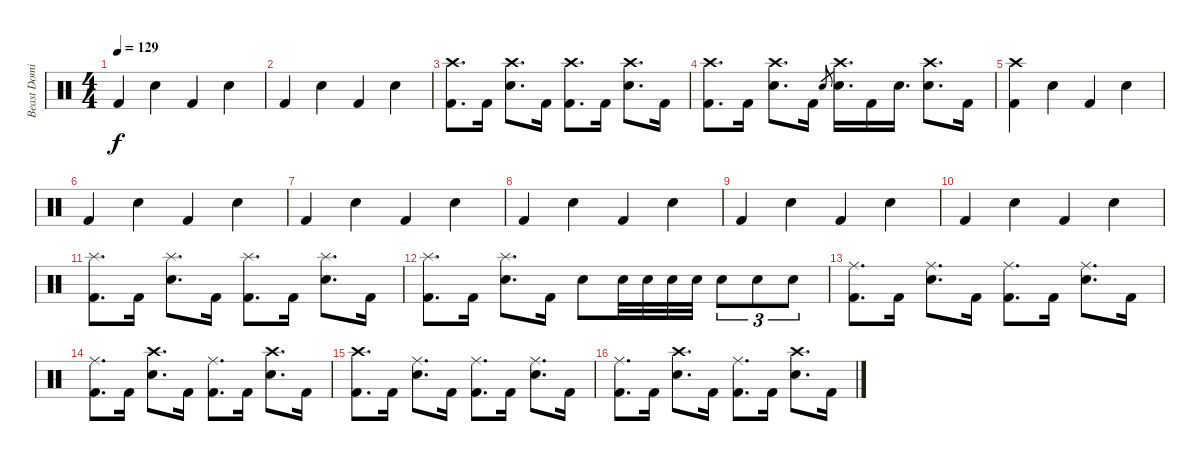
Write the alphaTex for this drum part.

\track ("Beast Dominator" "Beast Domi") {instrument percussion}
\staff
\articulation defaults
\ts (4 4)
\tempo 129
\clef neutral
\ks c "Kick (hit) 2".4{dy f} "Snare (hit) 2".4 "Kick (hit) 2".4 "Snare (hit) 2".4
|
"Kick (hit) 2".4 "Snare (hit) 2".4 "Kick (hit) 2".4 "Electric Snare (hit)".4 |
("Crash high (hit)" "Kick (hit) 2").8{d} "Kick (hit) 2".16 ("Crash high (hit)" "Snare (hit) 2").8{d} "Kick (hit) 2".16 ("Crash high (hit)" "Kick (hit) 2").8{d} "Kick (hit) 2".16 ("Crash high (hit)" "Snare (hit) 2").8{d} "Kick (hit) 2".16 |
("Crash high (hit)" "Kick (hit) 2").8{d} "Kick (hit) 2".16 ("Crash high (hit)" "Snare (hit) 2").8{d} "Kick (hit) 2".16 "Snare (hit) 2".8{gr} ("Crash high (hit)" "Snare (hit) 2").16{d} "Kick (hit) 2".16 "Snare (hit) 2".16{d} ("Crash high (hit)" "Snare (hit) 2").8{d} "Kick (hit) 2".16 |
("Crash high (hit)" "Kick (hit) 2").4 "Snare (hit) 2".4 "Kick (hit) 2".4 "Snare (hit) 2".4 |
"Kick (hit) 2".4 "Snare (hit) 2".4 "Kick (hit) 2".4 "Electric Snare (hit)".4 |
"Kick (hit) 2".4 "Snare (hit) 2".4 "Kick (hit) 2".4 "Snare (hit) 2".4 |
"Kick (hit) 2".4 "Snare (hit) 2".4 "Kick (hit) 2".4 "Electric Snare (hit)".4 |
"Kick (hit) 2".4 "Snare (hit) 2".4 "Kick (hit) 2".4 "Snare (hit) 2".4 |
"Kick (hit) 2".4 "Snare (hit) 2".4 "Kick (hit) 2".4 "Electric Snare (hit)".4 |
("Splash (hit)" "Kick (hit) 2").8{d} "Kick (hit) 2".16 ("Splash (hit)" "Electric Snare (hit)").8{d} "Kick (hit) 2".16 ("Splash (hit)" "Kick (hit) 2").8{d} "Kick (hit) 2".16 ("Splash (hit)" "Electric Snare (hit)").8{d} "Kick (hit) 2".16 |
("Splash (hit)" "Kick (hit) 2").8{d} "Kick (hit) 2".16 ("Splash (hit)" "Electric Snare (hit)").8{d} "Kick (hit) 2".16 "Electric Snare (hit)".8 "Electric Snare (hit)".32 "Electric Snare (hit)".32 "Electric Snare (hit)".32 "Electric Snare (hit)".32 "Electric Snare (hit)".8{tu (3 2)} "Electric Snare (hit)".8{tu (3 2)} "Electric Snare (hit)".8{tu (3 2)} |
("Ride (middle)" "Kick (hit) 2").8{d} "Kick (hit) 2".16 ("Ride (middle)" "Electric Snare (hit)").8{d} "Kick (hit) 2".16 ("Ride (middle)" "Kick (hit) 2").8{d} "Kick (hit) 2".16 ("Ride (middle)" "Electric Snare (hit)").8{d} "Kick (hit) 2".16 |
("Ride (middle)" "Kick (hit) 2").8{d} "Kick (hit) 2".16 ("Crash high (hit)" "Electric Snare (hit)").8{d} "Kick (hit) 2".16 ("Ride (middle)" "Kick (hit) 2").8{d} "Kick (hit) 2".16 ("Crash high (hit)" "Electric Snare (hit)").8{d} "Kick (hit) 2".16 |
("Crash high (hit)" "Kick (hit) 2").8{d} "Kick (hit) 2".16 ("Ride (middle)" "Electric Snare (hit)").8{d} "Kick (hit) 2".16 ("Ride (middle)" "Kick (hit) 2").8{d} "Kick (hit) 2".16 ("Ride (middle)" "Electric Snare (hit)").8{d} "Kick (hit) 2".16 |
("Ride (middle)" "Kick (hit) 2").8{d} "Kick (hit) 2".16 ("Crash high (hit)" "Electric Snare (hit)").8{d} "Kick (hit) 2".16 ("Ride (middle)" "Kick (hit) 2").8{d} "Kick (hit) 2".16 ("Crash high (hit)" "Electric Snare (hit)").8{d} "Kick (hit) 2".16
